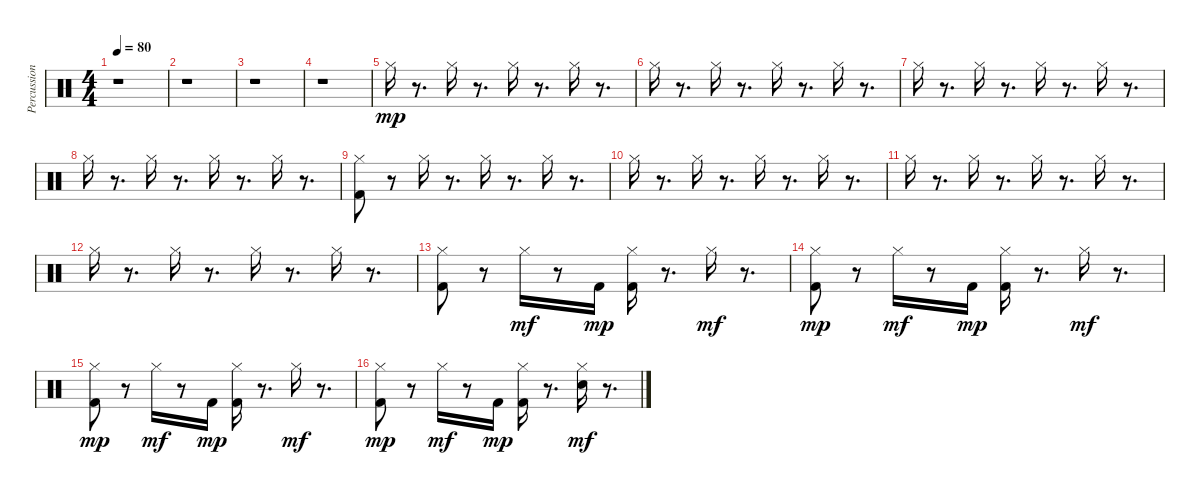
\track ("Percussions" "Percussion") {instrument percussion}
\staff {score}
\articulation defaults
\ts (4 4)
\tempo 80
\clef neutral
\ks c
r.1{dy mp} |
r.1 |
r.1 |
r.1 |
"Hi-Hat (closed)".16 r.8{d} "Hi-Hat (closed)".16 r.8{d} "Hi-Hat (closed)".16 r.8{d} "Hi-Hat (closed)".16 r.8{d} |
"Hi-Hat (closed)".16 r.8{d} "Hi-Hat (closed)".16 r.8{d} "Hi-Hat (closed)".16 r.8{d} "Hi-Hat (closed)".16 r.8{d} |
"Hi-Hat (closed)".16 r.8{d} "Hi-Hat (closed)".16 r.8{d} "Hi-Hat (closed)".16 r.8{d} "Hi-Hat (closed)".16 r.8{d} |
"Hi-Hat (closed)".16 r.8{d} "Hi-Hat (closed)".16 r.8{d} "Hi-Hat (closed)".16 r.8{d} "Hi-Hat (closed)".16 r.8{d} |
("Hi-Hat (closed)" "Kick (hit) 2").8 r.8 "Hi-Hat (closed)".16 r.8{d} "Hi-Hat (closed)".16 r.8{d} "Hi-Hat (closed)".16 r.8{d} |
"Hi-Hat (closed)".16 r.8{d} "Hi-Hat (closed)".16 r.8{d} "Hi-Hat (closed)".16 r.8{d} "Hi-Hat (closed)".16 r.8{d} |
"Hi-Hat (closed)".16 r.8{d} "Hi-Hat (closed)".16 r.8{d} "Hi-Hat (closed)".16 r.8{d} "Hi-Hat (closed)".16 r.8{d} |
"Hi-Hat (closed)".16 r.8{d} "Hi-Hat (closed)".16 r.8{d} "Hi-Hat (closed)".16 r.8{d} "Hi-Hat (closed)".16 r.8{d} |
("Hi-Hat (closed)" "Kick (hit) 2").8 r.8 "Hi-Hat (closed)".16{dy mf} r.8 "Kick (hit) 2".16{dy mp} ("Hi-Hat (closed)" "Kick (hit) 2").16 r.8{d} "Hi-Hat (closed)".16{dy mf} r.8{d} |
("Hi-Hat (closed)" "Kick (hit) 2").8{dy mp} r.8 "Hi-Hat (closed)".16{dy mf} r.8 "Kick (hit) 2".16{dy mp} ("Hi-Hat (closed)" "Kick (hit) 2").16 r.8{d} "Hi-Hat (closed)".16{dy mf} r.8{d} |
("Hi-Hat (closed)" "Kick (hit) 2").8{dy mp} r.8 "Hi-Hat (closed)".16{dy mf} r.8 "Kick (hit) 2".16{dy mp} ("Hi-Hat (closed)" "Kick (hit) 2").16 r.8{d} "Hi-Hat (closed)".16{dy mf} r.8{d} |
("Hi-Hat (closed)" "Kick (hit) 2").8{dy mp} r.8 "Hi-Hat (closed)".16{dy mf} r.8 "Kick (hit) 2".16{dy mp} ("Hi-Hat (closed)" "Kick (hit) 2").16 r.8{d} ("Hi-Hat (closed)" "Snare (hit) 2").16{dy mf} r.8{d}
